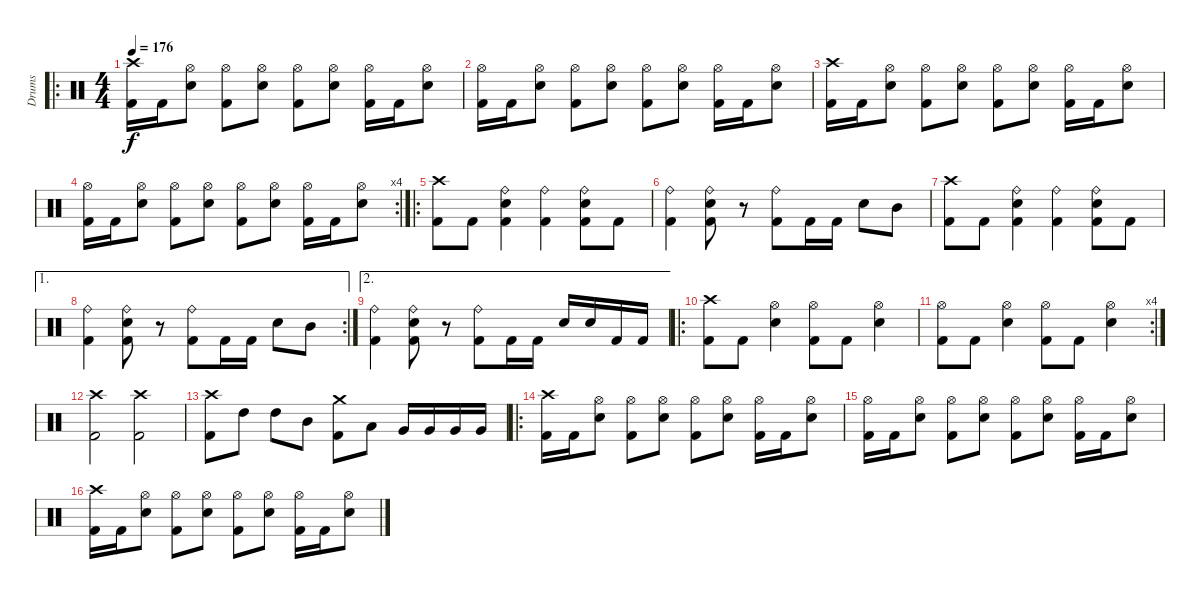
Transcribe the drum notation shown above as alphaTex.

\track ("Drums" "Drums") {instrument percussion}
\staff {score}
\articulation defaults
\ro
\ts (4 4)
\tempo 176
\clef neutral
\ks c
("Crash high (hit)" "Kick (hit) 2").16{dy f} "Kick (hit) 2".16 ("Hi-Hat (open)" "Electric Snare (hit)").8 ("Hi-Hat (open)" "Kick (hit) 2").8 ("Hi-Hat (open)" "Electric Snare (hit)").8 ("Hi-Hat (open)" "Kick (hit) 2").8 ("Hi-Hat (open)" "Electric Snare (hit)").8 ("Hi-Hat (open)" "Kick (hit) 2").16 "Kick (hit) 2".16 ("Hi-Hat (open)" "Electric Snare (hit)").8 |
("Hi-Hat (open)" "Kick (hit) 2").16 "Kick (hit) 2".16 ("Hi-Hat (open)" "Electric Snare (hit)").8 ("Hi-Hat (open)" "Kick (hit) 2").8 ("Hi-Hat (open)" "Electric Snare (hit)").8 ("Hi-Hat (open)" "Kick (hit) 2").8 ("Hi-Hat (open)" "Electric Snare (hit)").8 ("Hi-Hat (open)" "Kick (hit) 2").16 "Kick (hit) 2".16 ("Hi-Hat (open)" "Electric Snare (hit)").8 |
("Crash high (hit)" "Kick (hit) 2").16 "Kick (hit) 2".16 ("Hi-Hat (open)" "Electric Snare (hit)").8 ("Hi-Hat (open)" "Kick (hit) 2").8 ("Hi-Hat (open)" "Electric Snare (hit)").8 ("Hi-Hat (open)" "Kick (hit) 2").8 ("Hi-Hat (open)" "Electric Snare (hit)").8 ("Hi-Hat (open)" "Kick (hit) 2").16 "Kick (hit) 2".16 ("Hi-Hat (open)" "Electric Snare (hit)").8 |
\rc 4
("Hi-Hat (open)" "Kick (hit) 2").16 "Kick (hit) 2".16 ("Hi-Hat (open)" "Electric Snare (hit)").8 ("Hi-Hat (open)" "Kick (hit) 2").8 ("Hi-Hat (open)" "Electric Snare (hit)").8 ("Hi-Hat (open)" "Kick (hit) 2").8 ("Hi-Hat (open)" "Electric Snare (hit)").8 ("Hi-Hat (open)" "Kick (hit) 2").16 "Kick (hit) 2".16 ("Hi-Hat (open)" "Electric Snare (hit)").8 |
\ro
("Crash high (hit)" "Kick (hit) 2").8 "Kick (hit) 2".8 ("Ride (bell)" "Electric Snare (hit)" "Kick (hit) 2").4 ("Ride (bell)" "Kick (hit) 2").4 ("Ride (bell)" "Electric Snare (hit)" "Kick (hit) 2").8 "Kick (hit) 2".8 |
("Ride (bell)" "Kick (hit) 2").4 ("Ride (bell)" "Electric Snare (hit)" "Kick (hit) 2").8 r.8 ("Ride (bell)" "Kick (hit) 2").8 "Kick (hit) 2".16 "Kick (hit) 2".16 "Electric Snare (hit)".8 "Mid Tom (hit)".8 |
("Crash high (hit)" "Kick (hit) 2").8 "Kick (hit) 2".8 ("Ride (bell)" "Electric Snare (hit)" "Kick (hit) 2").4 ("Ride (bell)" "Kick (hit) 2").4 ("Ride (bell)" "Electric Snare (hit)" "Kick (hit) 2").8 "Kick (hit) 2".8 |
\ae 1
\rc 2
("Ride (bell)" "Kick (hit) 2").4 ("Ride (bell)" "Electric Snare (hit)" "Kick (hit) 2").8 r.8 ("Ride (bell)" "Kick (hit) 2").8 "Kick (hit) 2".16 "Kick (hit) 2".16 "Electric Snare (hit)".8 "Mid Tom (hit)".8 |
\ae 2
("Ride (bell)" "Kick (hit) 2").4 ("Ride (bell)" "Electric Snare (hit)" "Kick (hit) 2").8 r.8 ("Ride (bell)" "Kick (hit) 2").8 "Kick (hit) 2".16 "Kick (hit) 2".16 "Electric Snare (hit)".16 "Electric Snare (hit)".16 "Kick (hit) 2".16 "Kick (hit) 2".16 |
\ro
("Crash high (hit)" "Kick (hit) 2").8 "Kick (hit) 2".8 ("Hi-Hat (open)" "Electric Snare (hit)").4 ("Hi-Hat (open)" "Kick (hit) 2").8 "Kick (hit) 2".8 ("Hi-Hat (open)" "Electric Snare (hit)").4 |
\rc 4
("Hi-Hat (open)" "Kick (hit) 2").8 "Kick (hit) 2".8 ("Hi-Hat (open)" "Electric Snare (hit)").4 ("Hi-Hat (open)" "Kick (hit) 2").8 "Kick (hit) 2".8 ("Hi-Hat (open)" "Electric Snare (hit)").4 |
("Crash high (hit)" "Kick (hit) 2").2 ("Crash high (hit)" "Kick (hit) 2").2 |
("Crash high (hit)" "Kick (hit) 2").8 "High Tom (hit)".8 "High Tom (hit)".8 "Mid Tom (hit)".8 ("Crash medium (hit)" "Kick (hit) 2").8 "Low Tom (hit)".8 "Very Low Tom (hit)".16 "Very Low Tom (hit)".16 "Very Low Tom (hit)".16 "Very Low Tom (hit)".16 |
\ro
("Crash high (hit)" "Kick (hit) 2").16 "Kick (hit) 2".16 ("Hi-Hat (open)" "Electric Snare (hit)").8 ("Hi-Hat (open)" "Kick (hit) 2").8 ("Hi-Hat (open)" "Electric Snare (hit)").8 ("Hi-Hat (open)" "Kick (hit) 2").8 ("Hi-Hat (open)" "Electric Snare (hit)").8 ("Hi-Hat (open)" "Kick (hit) 2").16 "Kick (hit) 2".16 ("Hi-Hat (open)" "Electric Snare (hit)").8 |
("Hi-Hat (open)" "Kick (hit) 2").16 "Kick (hit) 2".16 ("Hi-Hat (open)" "Electric Snare (hit)").8 ("Hi-Hat (open)" "Kick (hit) 2").8 ("Hi-Hat (open)" "Electric Snare (hit)").8 ("Hi-Hat (open)" "Kick (hit) 2").8 ("Hi-Hat (open)" "Electric Snare (hit)").8 ("Hi-Hat (open)" "Kick (hit) 2").16 "Kick (hit) 2".16 ("Hi-Hat (open)" "Electric Snare (hit)").8 |
("Crash high (hit)" "Kick (hit) 2").16 "Kick (hit) 2".16 ("Hi-Hat (open)" "Electric Snare (hit)").8 ("Hi-Hat (open)" "Kick (hit) 2").8 ("Hi-Hat (open)" "Electric Snare (hit)").8 ("Hi-Hat (open)" "Kick (hit) 2").8 ("Hi-Hat (open)" "Electric Snare (hit)").8 ("Hi-Hat (open)" "Kick (hit) 2").16 "Kick (hit) 2".16 ("Hi-Hat (open)" "Electric Snare (hit)").8
